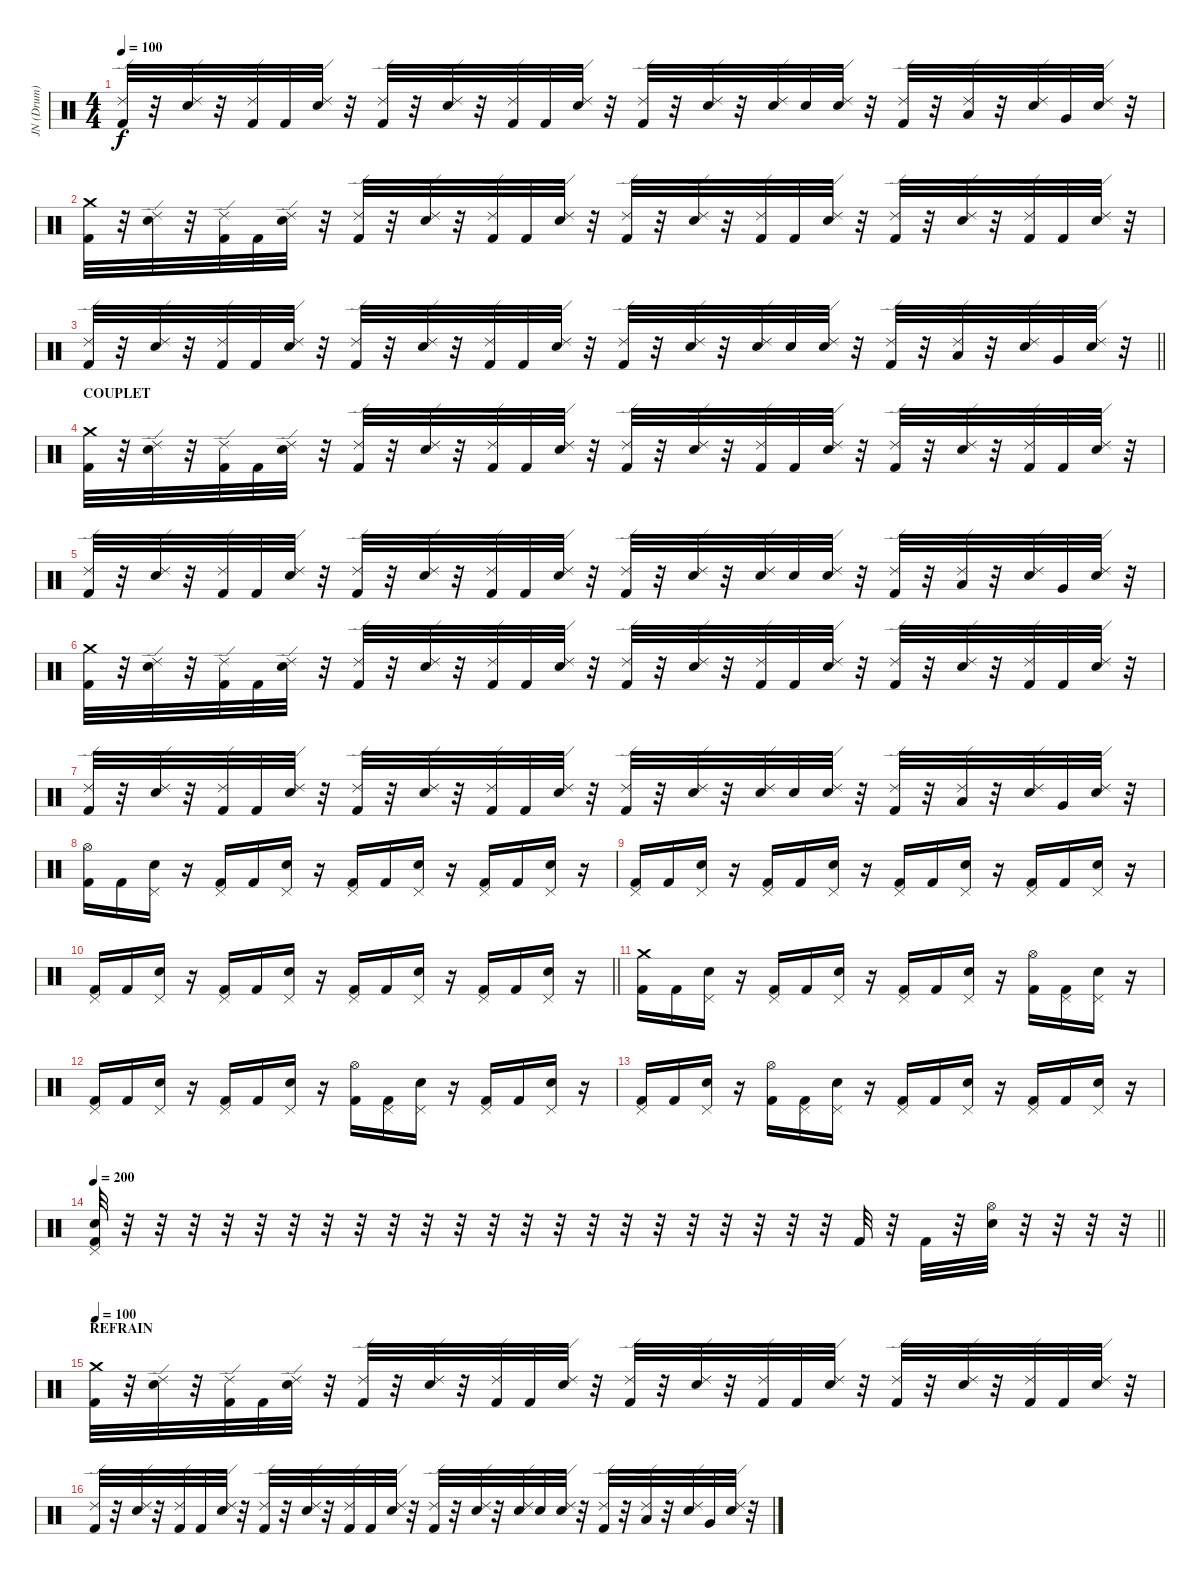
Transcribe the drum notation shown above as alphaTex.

\track ("JN (Drum)" "JN (Drum)") {instrument percussion}
\staff {score}
\articulation defaults
\ts (4 4)
\tempo 100
\clef neutral
\ks c
("Ride (edge) 2" "Kick (hit) 2").32{dy f} r.32 ("Ride (edge) 2" "Electric Snare (hit)").32 r.32 ("Ride (edge) 2" "Kick (hit) 2").32 "Kick (hit) 2".32 ("Ride (edge) 2" "Electric Snare (hit)").32 r.32 ("Ride (edge) 2" "Kick (hit) 2").32 r.32 ("Ride (edge) 2" "Electric Snare (hit)").32 r.32 ("Ride (edge) 2" "Kick (hit) 2").32 "Kick (hit) 2".32 ("Ride (edge) 2" "Electric Snare (hit)").32 r.32 ("Ride (edge) 2" "Kick (hit) 2").32 r.32 ("Ride (edge) 2" "Electric Snare (hit)").32 r.32 ("Ride (edge) 2" "Electric Snare (hit)").32 "Electric Snare (hit)".32 ("Ride (edge) 2" "Electric Snare (hit)").32 r.32 ("Ride (edge) 2" "Kick (hit) 2").32 r.32 ("Ride (edge) 2" "Low Tom (hit)").32 r.32 ("Ride (edge) 2" "Electric Snare (hit)").32 "Very Low Tom (hit)".32 ("Ride (edge) 2" "Electric Snare (hit)").32 r.32 |
("Crash medium (hit)" "Kick (hit) 2").32 r.32 ("Ride (edge) 2" "Electric Snare (hit)").32 r.32 ("Ride (edge) 2" "Kick (hit) 2").32 "Kick (hit) 2".32 ("Ride (edge) 2" "Electric Snare (hit)").32 r.32 ("Ride (edge) 2" "Kick (hit) 2").32 r.32 ("Ride (edge) 2" "Electric Snare (hit)").32 r.32 ("Ride (edge) 2" "Kick (hit) 2").32 "Kick (hit) 2".32 ("Ride (edge) 2" "Electric Snare (hit)").32 r.32 ("Ride (edge) 2" "Kick (hit) 2").32 r.32 ("Ride (edge) 2" "Electric Snare (hit)").32 r.32 ("Ride (edge) 2" "Kick (hit) 2").32 "Kick (hit) 2".32 ("Ride (edge) 2" "Electric Snare (hit)").32 r.32 ("Ride (edge) 2" "Kick (hit) 2").32 r.32 ("Ride (edge) 2" "Electric Snare (hit)").32 r.32 ("Ride (edge) 2" "Kick (hit) 2").32 "Kick (hit) 2".32 ("Ride (edge) 2" "Electric Snare (hit)").32 r.32 |
\barLineRight lightlight
("Ride (edge) 2" "Kick (hit) 2").32 r.32 ("Ride (edge) 2" "Electric Snare (hit)").32 r.32 ("Ride (edge) 2" "Kick (hit) 2").32 "Kick (hit) 2".32 ("Ride (edge) 2" "Electric Snare (hit)").32 r.32 ("Ride (edge) 2" "Kick (hit) 2").32 r.32 ("Ride (edge) 2" "Electric Snare (hit)").32 r.32 ("Ride (edge) 2" "Kick (hit) 2").32 "Kick (hit) 2".32 ("Ride (edge) 2" "Electric Snare (hit)").32 r.32 ("Ride (edge) 2" "Kick (hit) 2").32 r.32 ("Ride (edge) 2" "Electric Snare (hit)").32 r.32 ("Ride (edge) 2" "Electric Snare (hit)").32 "Electric Snare (hit)".32 ("Ride (edge) 2" "Electric Snare (hit)").32 r.32 ("Ride (edge) 2" "Kick (hit) 2").32 r.32 ("Ride (edge) 2" "Low Tom (hit)").32 r.32 ("Ride (edge) 2" "Electric Snare (hit)").32 "Very Low Tom (hit)".32 ("Ride (edge) 2" "Electric Snare (hit)").32 r.32 |
\section ("" "COUPLET")
("Crash medium (hit)" "Kick (hit) 2").32 r.32 ("Ride (edge) 2" "Electric Snare (hit)").32 r.32 ("Ride (edge) 2" "Kick (hit) 2").32 "Kick (hit) 2".32 ("Ride (edge) 2" "Electric Snare (hit)").32 r.32 ("Ride (edge) 2" "Kick (hit) 2").32 r.32 ("Ride (edge) 2" "Electric Snare (hit)").32 r.32 ("Ride (edge) 2" "Kick (hit) 2").32 "Kick (hit) 2".32 ("Ride (edge) 2" "Electric Snare (hit)").32 r.32 ("Ride (edge) 2" "Kick (hit) 2").32 r.32 ("Ride (edge) 2" "Electric Snare (hit)").32 r.32 ("Ride (edge) 2" "Kick (hit) 2").32 "Kick (hit) 2".32 ("Ride (edge) 2" "Electric Snare (hit)").32 r.32 ("Ride (edge) 2" "Kick (hit) 2").32 r.32 ("Ride (edge) 2" "Electric Snare (hit)").32 r.32 ("Ride (edge) 2" "Kick (hit) 2").32 "Kick (hit) 2".32 ("Ride (edge) 2" "Electric Snare (hit)").32 r.32 |
("Ride (edge) 2" "Kick (hit) 2").32 r.32 ("Ride (edge) 2" "Electric Snare (hit)").32 r.32 ("Ride (edge) 2" "Kick (hit) 2").32 "Kick (hit) 2".32 ("Ride (edge) 2" "Electric Snare (hit)").32 r.32 ("Ride (edge) 2" "Kick (hit) 2").32 r.32 ("Ride (edge) 2" "Electric Snare (hit)").32 r.32 ("Ride (edge) 2" "Kick (hit) 2").32 "Kick (hit) 2".32 ("Ride (edge) 2" "Electric Snare (hit)").32 r.32 ("Ride (edge) 2" "Kick (hit) 2").32 r.32 ("Ride (edge) 2" "Electric Snare (hit)").32 r.32 ("Ride (edge) 2" "Electric Snare (hit)").32 "Electric Snare (hit)".32 ("Ride (edge) 2" "Electric Snare (hit)").32 r.32 ("Ride (edge) 2" "Kick (hit) 2").32 r.32 ("Ride (edge) 2" "Low Tom (hit)").32 r.32 ("Ride (edge) 2" "Electric Snare (hit)").32 "Very Low Tom (hit)".32 ("Ride (edge) 2" "Electric Snare (hit)").32 r.32 |
("Crash medium (hit)" "Kick (hit) 2").32 r.32 ("Ride (edge) 2" "Electric Snare (hit)").32 r.32 ("Ride (edge) 2" "Kick (hit) 2").32 "Kick (hit) 2".32 ("Ride (edge) 2" "Electric Snare (hit)").32 r.32 ("Ride (edge) 2" "Kick (hit) 2").32 r.32 ("Ride (edge) 2" "Electric Snare (hit)").32 r.32 ("Ride (edge) 2" "Kick (hit) 2").32 "Kick (hit) 2".32 ("Ride (edge) 2" "Electric Snare (hit)").32 r.32 ("Ride (edge) 2" "Kick (hit) 2").32 r.32 ("Ride (edge) 2" "Electric Snare (hit)").32 r.32 ("Ride (edge) 2" "Kick (hit) 2").32 "Kick (hit) 2".32 ("Ride (edge) 2" "Electric Snare (hit)").32 r.32 ("Ride (edge) 2" "Kick (hit) 2").32 r.32 ("Ride (edge) 2" "Electric Snare (hit)").32 r.32 ("Ride (edge) 2" "Kick (hit) 2").32 "Kick (hit) 2".32 ("Ride (edge) 2" "Electric Snare (hit)").32 r.32 |
("Ride (edge) 2" "Kick (hit) 2").32 r.32 ("Ride (edge) 2" "Electric Snare (hit)").32 r.32 ("Ride (edge) 2" "Kick (hit) 2").32 "Kick (hit) 2".32 ("Ride (edge) 2" "Electric Snare (hit)").32 r.32 ("Ride (edge) 2" "Kick (hit) 2").32 r.32 ("Ride (edge) 2" "Electric Snare (hit)").32 r.32 ("Ride (edge) 2" "Kick (hit) 2").32 "Kick (hit) 2".32 ("Ride (edge) 2" "Electric Snare (hit)").32 r.32 ("Ride (edge) 2" "Kick (hit) 2").32 r.32 ("Ride (edge) 2" "Electric Snare (hit)").32 r.32 ("Ride (edge) 2" "Electric Snare (hit)").32 "Electric Snare (hit)".32 ("Ride (edge) 2" "Electric Snare (hit)").32 r.32 ("Ride (edge) 2" "Kick (hit) 2").32 r.32 ("Ride (edge) 2" "Low Tom (hit)").32 r.32 ("Ride (edge) 2" "Electric Snare (hit)").32 "Very Low Tom (hit)".32 ("Ride (edge) 2" "Electric Snare (hit)").32 r.32 |
("Hi-Hat (open)" "Kick (hit) 2").16 "Kick (hit) 2".16 ("Pedal Hi-Hat (hit)" "Electric Snare (hit)").16 r.16 ("Pedal Hi-Hat (hit)" "Kick (hit) 2").16 "Kick (hit) 2".16 ("Pedal Hi-Hat (hit)" "Electric Snare (hit)").16 r.16 ("Pedal Hi-Hat (hit)" "Kick (hit) 2").16 "Kick (hit) 2".16 ("Pedal Hi-Hat (hit)" "Electric Snare (hit)").16 r.16 ("Pedal Hi-Hat (hit)" "Kick (hit) 2").16 "Kick (hit) 2".16 ("Pedal Hi-Hat (hit)" "Electric Snare (hit)").16 r.16 |
("Pedal Hi-Hat (hit)" "Kick (hit) 2").16 "Kick (hit) 2".16 ("Pedal Hi-Hat (hit)" "Electric Snare (hit)").16 r.16 ("Pedal Hi-Hat (hit)" "Kick (hit) 2").16 "Kick (hit) 2".16 ("Pedal Hi-Hat (hit)" "Electric Snare (hit)").16 r.16 ("Pedal Hi-Hat (hit)" "Kick (hit) 2").16 "Kick (hit) 2".16 ("Pedal Hi-Hat (hit)" "Electric Snare (hit)").16 r.16 ("Pedal Hi-Hat (hit)" "Kick (hit) 2").16 "Kick (hit) 2".16 ("Pedal Hi-Hat (hit)" "Electric Snare (hit)").16 r.16 |
\barLineRight lightlight
("Pedal Hi-Hat (hit)" "Kick (hit) 2").16 "Kick (hit) 2".16 ("Pedal Hi-Hat (hit)" "Electric Snare (hit)").16 r.16 ("Pedal Hi-Hat (hit)" "Kick (hit) 2").16 "Kick (hit) 2".16 ("Pedal Hi-Hat (hit)" "Electric Snare (hit)").16 r.16 ("Pedal Hi-Hat (hit)" "Kick (hit) 2").16 "Kick (hit) 2".16 ("Pedal Hi-Hat (hit)" "Electric Snare (hit)").16 r.16 ("Pedal Hi-Hat (hit)" "Kick (hit) 2").16 "Kick (hit) 2".16 ("Pedal Hi-Hat (hit)" "Electric Snare (hit)").16 r.16 |
("Crash medium (hit)" "Kick (hit) 2").16 "Kick (hit) 2".16 ("Pedal Hi-Hat (hit)" "Electric Snare (hit)").16 r.16 ("Pedal Hi-Hat (hit)" "Kick (hit) 2").16 "Kick (hit) 2".16 ("Pedal Hi-Hat (hit)" "Electric Snare (hit)").16 r.16 ("Pedal Hi-Hat (hit)" "Kick (hit) 2").16 "Kick (hit) 2".16 ("Pedal Hi-Hat (hit)" "Electric Snare (hit)").16 r.16 ("Hi-Hat (open)" "Kick (hit) 2").16 ("Pedal Hi-Hat (hit)" "Kick (hit) 2").16 ("Pedal Hi-Hat (hit)" "Electric Snare (hit)").16 r.16 |
("Pedal Hi-Hat (hit)" "Kick (hit) 2").16 "Kick (hit) 2".16 ("Pedal Hi-Hat (hit)" "Electric Snare (hit)").16 r.16 ("Pedal Hi-Hat (hit)" "Kick (hit) 2").16 "Kick (hit) 2".16 ("Pedal Hi-Hat (hit)" "Electric Snare (hit)").16 r.16 ("Hi-Hat (open)" "Kick (hit) 2").16 ("Pedal Hi-Hat (hit)" "Kick (hit) 2").16 ("Pedal Hi-Hat (hit)" "Electric Snare (hit)").16 r.16 ("Pedal Hi-Hat (hit)" "Kick (hit) 2").16 "Kick (hit) 2".16 ("Pedal Hi-Hat (hit)" "Electric Snare (hit)").16 r.16 |
("Pedal Hi-Hat (hit)" "Kick (hit) 2").16 "Kick (hit) 2".16 ("Pedal Hi-Hat (hit)" "Electric Snare (hit)").16 r.16 ("Hi-Hat (open)" "Kick (hit) 2").16 ("Pedal Hi-Hat (hit)" "Kick (hit) 2").16 ("Pedal Hi-Hat (hit)" "Electric Snare (hit)").16 r.16 ("Pedal Hi-Hat (hit)" "Kick (hit) 2").16 "Kick (hit) 2".16 ("Pedal Hi-Hat (hit)" "Electric Snare (hit)").16 r.16 ("Pedal Hi-Hat (hit)" "Kick (hit) 2").16 "Kick (hit) 2".16 ("Pedal Hi-Hat (hit)" "Electric Snare (hit)").16 r.16 |
\tempo 200
\barLineRight lightlight
("Pedal Hi-Hat (hit)" "Electric Snare (hit)" "Kick (hit) 2").32 r.32 r.32 r.32 r.32 r.32 r.32 r.32 r.32 r.32 r.32 r.32 r.32 r.32 r.32 r.32 r.32 r.32 r.32 r.32 r.32 r.32 r.32 "Kick (hit) 2".32 r.32 "Kick (hit) 2".32 r.32 ("Hi-Hat (open)" "Electric Snare (hit)").32 r.32 r.32 r.32 r.32 |
\section ("" "REFRAIN")
\tempo 100
("Crash medium (hit)" "Kick (hit) 2").32 r.32 ("Ride (edge) 2" "Electric Snare (hit)").32 r.32 ("Ride (edge) 2" "Kick (hit) 2").32 "Kick (hit) 2".32 ("Ride (edge) 2" "Electric Snare (hit)").32 r.32 ("Ride (edge) 2" "Kick (hit) 2").32 r.32 ("Ride (edge) 2" "Electric Snare (hit)").32 r.32 ("Ride (edge) 2" "Kick (hit) 2").32 "Kick (hit) 2".32 ("Ride (edge) 2" "Electric Snare (hit)").32 r.32 ("Ride (edge) 2" "Kick (hit) 2").32 r.32 ("Ride (edge) 2" "Electric Snare (hit)").32 r.32 ("Ride (edge) 2" "Kick (hit) 2").32 "Kick (hit) 2".32 ("Ride (edge) 2" "Electric Snare (hit)").32 r.32 ("Ride (edge) 2" "Kick (hit) 2").32 r.32 ("Ride (edge) 2" "Electric Snare (hit)").32 r.32 ("Ride (edge) 2" "Kick (hit) 2").32 "Kick (hit) 2".32 ("Ride (edge) 2" "Electric Snare (hit)").32 r.32 |
("Ride (edge) 2" "Kick (hit) 2").32 r.32 ("Ride (edge) 2" "Electric Snare (hit)").32 r.32 ("Ride (edge) 2" "Kick (hit) 2").32 "Kick (hit) 2".32 ("Ride (edge) 2" "Electric Snare (hit)").32 r.32 ("Ride (edge) 2" "Kick (hit) 2").32 r.32 ("Ride (edge) 2" "Electric Snare (hit)").32 r.32 ("Ride (edge) 2" "Kick (hit) 2").32 "Kick (hit) 2".32 ("Ride (edge) 2" "Electric Snare (hit)").32 r.32 ("Ride (edge) 2" "Kick (hit) 2").32 r.32 ("Ride (edge) 2" "Electric Snare (hit)").32 r.32 ("Ride (edge) 2" "Electric Snare (hit)").32 "Electric Snare (hit)".32 ("Ride (edge) 2" "Electric Snare (hit)").32 r.32 ("Ride (edge) 2" "Kick (hit) 2").32 r.32 ("Ride (edge) 2" "Low Tom (hit)").32 r.32 ("Ride (edge) 2" "Electric Snare (hit)").32 "Very Low Tom (hit)".32 ("Ride (edge) 2" "Electric Snare (hit)").32 r.32
